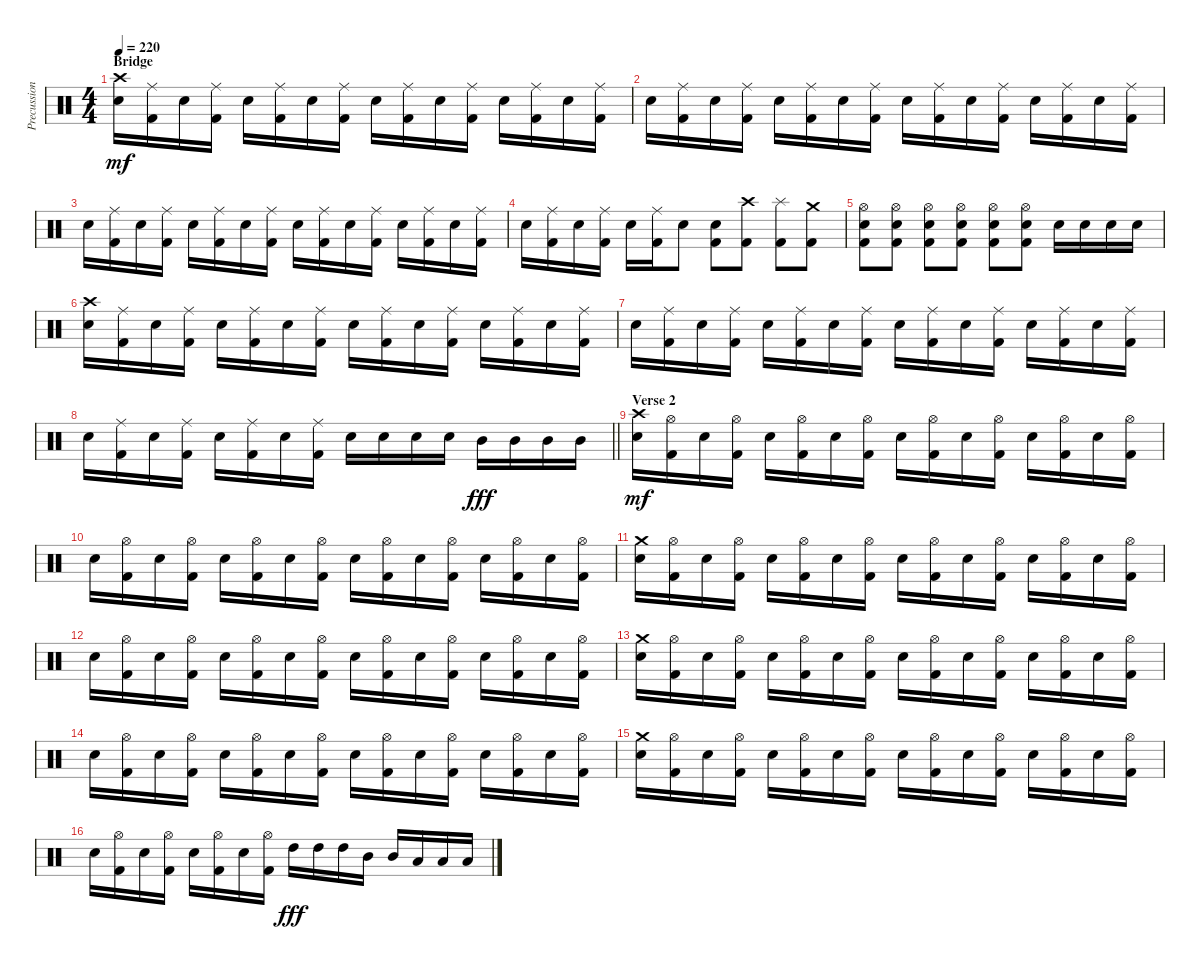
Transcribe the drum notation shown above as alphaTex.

\track ("Precussion" "Precussion") {instrument percussion}
\staff {score}
\articulation defaults
\ts (4 4)
\section ("" "Bridge")
\tempo 220
\clef neutral
\ks c
("Crash high (hit)" "Electric Snare (hit)").16{dy mf} ("Ride (middle)" "Kick (hit) 2").16 "Electric Snare (hit)".16 ("Ride (middle)" "Kick (hit) 2").16 "Electric Snare (hit)".16 ("Ride (middle)" "Kick (hit) 2").16 "Electric Snare (hit)".16 ("Ride (middle)" "Kick (hit) 2").16 "Electric Snare (hit)".16 ("Ride (middle)" "Kick (hit) 2").16 "Electric Snare (hit)".16 ("Ride (middle)" "Kick (hit) 2").16 "Electric Snare (hit)".16 ("Ride (middle)" "Kick (hit) 2").16 "Electric Snare (hit)".16 ("Ride (middle)" "Kick (hit) 2").16 |
"Electric Snare (hit)".16 ("Ride (middle)" "Kick (hit) 2").16 "Electric Snare (hit)".16 ("Ride (middle)" "Kick (hit) 2").16 "Electric Snare (hit)".16 ("Ride (middle)" "Kick (hit) 2").16 "Electric Snare (hit)".16 ("Ride (middle)" "Kick (hit) 2").16 "Electric Snare (hit)".16 ("Ride (middle)" "Kick (hit) 2").16 "Electric Snare (hit)".16 ("Ride (middle)" "Kick (hit) 2").16 "Electric Snare (hit)".16 ("Ride (middle)" "Kick (hit) 2").16 "Electric Snare (hit)".16 ("Ride (middle)" "Kick (hit) 2").16 |
"Electric Snare (hit)".16 ("Ride (middle)" "Kick (hit) 2").16 "Electric Snare (hit)".16 ("Ride (middle)" "Kick (hit) 2").16 "Electric Snare (hit)".16 ("Ride (middle)" "Kick (hit) 2").16 "Electric Snare (hit)".16 ("Ride (middle)" "Kick (hit) 2").16 "Electric Snare (hit)".16 ("Ride (middle)" "Kick (hit) 2").16 "Electric Snare (hit)".16 ("Ride (middle)" "Kick (hit) 2").16 "Electric Snare (hit)".16 ("Ride (middle)" "Kick (hit) 2").16 "Electric Snare (hit)".16 ("Ride (middle)" "Kick (hit) 2").16 |
"Electric Snare (hit)".16 ("Ride (middle)" "Kick (hit) 2").16 "Electric Snare (hit)".16 ("Ride (middle)" "Kick (hit) 2").16 "Electric Snare (hit)".16 ("Ride (middle)" "Kick (hit) 2").16 "Electric Snare (hit)".8 ("Electric Snare (hit)" "Kick (hit) 2").8 ("Crash high (hit)" "Kick (hit) 2").8 ("Splash (hit)" "Kick (hit) 2").8 ("Crash medium (hit)" "Kick (hit) 2").8 |
("Hi-Hat (open)" "Electric Snare (hit)" "Kick (hit) 2").8 ("Hi-Hat (open)" "Electric Snare (hit)" "Kick (hit) 2").8 ("Hi-Hat (open)" "Electric Snare (hit)" "Kick (hit) 2").8 ("Hi-Hat (open)" "Electric Snare (hit)" "Kick (hit) 2").8 ("Hi-Hat (open)" "Electric Snare (hit)" "Kick (hit) 2").8 ("Hi-Hat (open)" "Electric Snare (hit)" "Kick (hit) 2").8 "Electric Snare (hit)".16 "Electric Snare (hit)".16 "Electric Snare (hit)".16 "Electric Snare (hit)".16 |
("Crash high (hit)" "Electric Snare (hit)").16 ("Ride (middle)" "Kick (hit) 2").16 "Electric Snare (hit)".16 ("Ride (middle)" "Kick (hit) 2").16 "Electric Snare (hit)".16 ("Ride (middle)" "Kick (hit) 2").16 "Electric Snare (hit)".16 ("Ride (middle)" "Kick (hit) 2").16 "Electric Snare (hit)".16 ("Ride (middle)" "Kick (hit) 2").16 "Electric Snare (hit)".16 ("Ride (middle)" "Kick (hit) 2").16 "Electric Snare (hit)".16 ("Ride (middle)" "Kick (hit) 2").16 "Electric Snare (hit)".16 ("Ride (middle)" "Kick (hit) 2").16 |
"Electric Snare (hit)".16 ("Ride (middle)" "Kick (hit) 2").16 "Electric Snare (hit)".16 ("Ride (middle)" "Kick (hit) 2").16 "Electric Snare (hit)".16 ("Ride (middle)" "Kick (hit) 2").16 "Electric Snare (hit)".16 ("Ride (middle)" "Kick (hit) 2").16 "Electric Snare (hit)".16 ("Ride (middle)" "Kick (hit) 2").16 "Electric Snare (hit)".16 ("Ride (middle)" "Kick (hit) 2").16 "Electric Snare (hit)".16 ("Ride (middle)" "Kick (hit) 2").16 "Electric Snare (hit)".16 ("Ride (middle)" "Kick (hit) 2").16 |
\barLineRight lightlight "Electric Snare (hit)".16
("Ride (middle)" "Kick (hit) 2").16 "Electric Snare (hit)".16 ("Ride (middle)" "Kick (hit) 2").16 "Electric Snare (hit)".16 ("Ride (middle)" "Kick (hit) 2").16 "Electric Snare (hit)".16 ("Ride (middle)" "Kick (hit) 2").16 "Electric Snare (hit)".16 "Electric Snare (hit)".16 "Electric Snare (hit)".16 "Electric Snare (hit)".16 "Mid Tom (hit)".16{dy fff} "Mid Tom (hit)".16 "Mid Tom (hit)".16 "Mid Tom (hit)".16 |
\section ("" "Verse 2")
("Crash high (hit)" "Electric Snare (hit)").16{dy mf} ("Hi-Hat (open)" "Kick (hit) 2").16 "Electric Snare (hit)".16 ("Hi-Hat (open)" "Kick (hit) 2").16 "Electric Snare (hit)".16 ("Hi-Hat (open)" "Kick (hit) 2").16 "Electric Snare (hit)".16 ("Hi-Hat (open)" "Kick (hit) 2").16 "Electric Snare (hit)".16 ("Hi-Hat (open)" "Kick (hit) 2").16 "Electric Snare (hit)".16 ("Hi-Hat (open)" "Kick (hit) 2").16 "Electric Snare (hit)".16 ("Hi-Hat (open)" "Kick (hit) 2").16 "Electric Snare (hit)".16 ("Hi-Hat (open)" "Kick (hit) 2").16 |
"Electric Snare (hit)".16 ("Hi-Hat (open)" "Kick (hit) 2").16 "Electric Snare (hit)".16 ("Hi-Hat (open)" "Kick (hit) 2").16 "Electric Snare (hit)".16 ("Hi-Hat (open)" "Kick (hit) 2").16 "Electric Snare (hit)".16 ("Hi-Hat (open)" "Kick (hit) 2").16 "Electric Snare (hit)".16 ("Hi-Hat (open)" "Kick (hit) 2").16 "Electric Snare (hit)".16 ("Hi-Hat (open)" "Kick (hit) 2").16 "Electric Snare (hit)".16 ("Hi-Hat (open)" "Kick (hit) 2").16 "Electric Snare (hit)".16 ("Hi-Hat (open)" "Kick (hit) 2").16 |
("Crash medium (hit)" "Electric Snare (hit)").16 ("Hi-Hat (open)" "Kick (hit) 2").16 "Electric Snare (hit)".16 ("Hi-Hat (open)" "Kick (hit) 2").16 "Electric Snare (hit)".16 ("Hi-Hat (open)" "Kick (hit) 2").16 "Electric Snare (hit)".16 ("Hi-Hat (open)" "Kick (hit) 2").16 "Electric Snare (hit)".16 ("Hi-Hat (open)" "Kick (hit) 2").16 "Electric Snare (hit)".16 ("Hi-Hat (open)" "Kick (hit) 2").16 "Electric Snare (hit)".16 ("Hi-Hat (open)" "Kick (hit) 2").16 "Electric Snare (hit)".16 ("Hi-Hat (open)" "Kick (hit) 2").16 |
"Electric Snare (hit)".16 ("Hi-Hat (open)" "Kick (hit) 2").16 "Electric Snare (hit)".16 ("Hi-Hat (open)" "Kick (hit) 2").16 "Electric Snare (hit)".16 ("Hi-Hat (open)" "Kick (hit) 2").16 "Electric Snare (hit)".16 ("Hi-Hat (open)" "Kick (hit) 2").16 "Electric Snare (hit)".16 ("Hi-Hat (open)" "Kick (hit) 2").16 "Electric Snare (hit)".16 ("Hi-Hat (open)" "Kick (hit) 2").16 "Electric Snare (hit)".16 ("Hi-Hat (open)" "Kick (hit) 2").16 "Electric Snare (hit)".16 ("Hi-Hat (open)" "Kick (hit) 2").16 |
("Crash medium (hit)" "Electric Snare (hit)").16 ("Hi-Hat (open)" "Kick (hit) 2").16 "Electric Snare (hit)".16 ("Hi-Hat (open)" "Kick (hit) 2").16 "Electric Snare (hit)".16 ("Hi-Hat (open)" "Kick (hit) 2").16 "Electric Snare (hit)".16 ("Hi-Hat (open)" "Kick (hit) 2").16 "Electric Snare (hit)".16 ("Hi-Hat (open)" "Kick (hit) 2").16 "Electric Snare (hit)".16 ("Hi-Hat (open)" "Kick (hit) 2").16 "Electric Snare (hit)".16 ("Hi-Hat (open)" "Kick (hit) 2").16 "Electric Snare (hit)".16 ("Hi-Hat (open)" "Kick (hit) 2").16 |
"Electric Snare (hit)".16 ("Hi-Hat (open)" "Kick (hit) 2").16 "Electric Snare (hit)".16 ("Hi-Hat (open)" "Kick (hit) 2").16 "Electric Snare (hit)".16 ("Hi-Hat (open)" "Kick (hit) 2").16 "Electric Snare (hit)".16 ("Hi-Hat (open)" "Kick (hit) 2").16 "Electric Snare (hit)".16 ("Hi-Hat (open)" "Kick (hit) 2").16 "Electric Snare (hit)".16 ("Hi-Hat (open)" "Kick (hit) 2").16 "Electric Snare (hit)".16 ("Hi-Hat (open)" "Kick (hit) 2").16 "Electric Snare (hit)".16 ("Hi-Hat (open)" "Kick (hit) 2").16 |
("Crash medium (hit)" "Electric Snare (hit)").16 ("Hi-Hat (open)" "Kick (hit) 2").16 "Electric Snare (hit)".16 ("Hi-Hat (open)" "Kick (hit) 2").16 "Electric Snare (hit)".16 ("Hi-Hat (open)" "Kick (hit) 2").16 "Electric Snare (hit)".16 ("Hi-Hat (open)" "Kick (hit) 2").16 "Electric Snare (hit)".16 ("Hi-Hat (open)" "Kick (hit) 2").16 "Electric Snare (hit)".16 ("Hi-Hat (open)" "Kick (hit) 2").16 "Electric Snare (hit)".16 ("Hi-Hat (open)" "Kick (hit) 2").16 "Electric Snare (hit)".16 ("Hi-Hat (open)" "Kick (hit) 2").16 |
"Electric Snare (hit)".16 ("Hi-Hat (open)" "Kick (hit) 2").16 "Electric Snare (hit)".16 ("Hi-Hat (open)" "Kick (hit) 2").16 "Electric Snare (hit)".16 ("Hi-Hat (open)" "Kick (hit) 2").16 "Electric Snare (hit)".16 ("Hi-Hat (open)" "Kick (hit) 2").16 "High Tom (hit)".16{dy fff} "High Tom (hit)".16 "High Tom (hit)".16 "Mid Tom (hit)".16 "Mid Tom (hit)".16 "Low Tom (hit)".16 "Low Tom (hit)".16 "Low Tom (hit)".16
